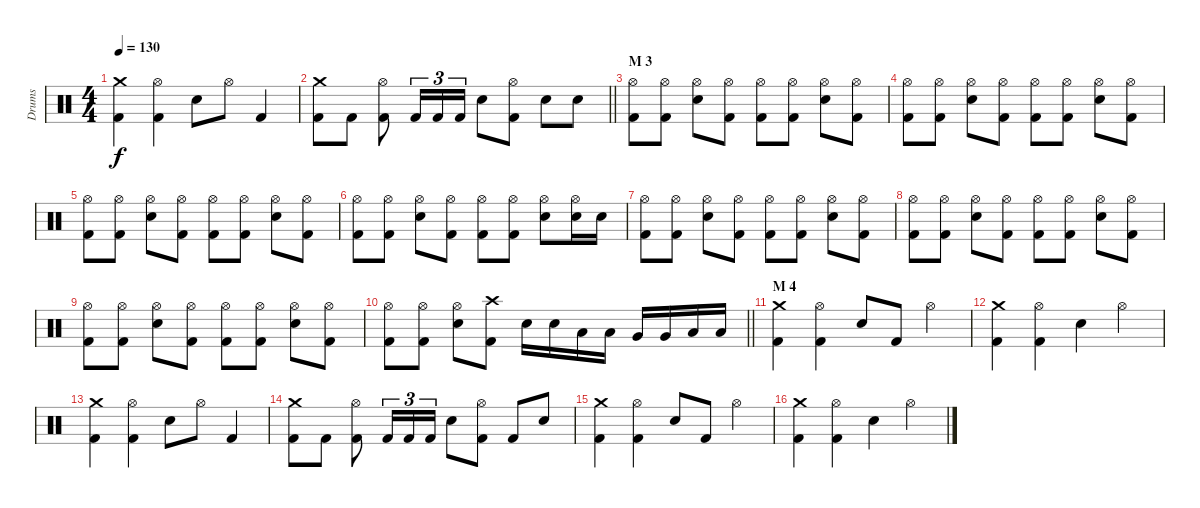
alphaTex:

\track ("Drums" "Drums") {instrument percussion}
\staff
\articulation defaults
\ts (4 4)
\tempo 130
\clef neutral
\ks c
("Crash medium (hit)" "Kick (hit) 2").4{dy f} ("Hi-Hat (open)" "Kick (hit) 2").4 "Electric Snare (hit)".8 "Hi-Hat (open)".8 "Kick (hit) 2".4 |
\barLineRight lightlight
("Crash medium (hit)" "Kick (hit) 2").8 "Kick (hit) 2".8 ("Hi-Hat (open)" "Kick (hit) 2").8 "Kick (hit) 2".16{tu (3 2)} "Kick (hit) 2".16{tu (3 2)} "Kick (hit) 2".16{tu (3 2)} "Electric Snare (hit)".8 ("Hi-Hat (open)" "Kick (hit) 2").8 "Electric Snare (hit)".8 "Electric Snare (hit)".8 |
\section ("" "M 3")
("Hi-Hat (open)" "Kick (hit) 2").8 ("Hi-Hat (open)" "Kick (hit) 2").8 ("Hi-Hat (open)" "Electric Snare (hit)").8 ("Hi-Hat (open)" "Kick (hit) 2").8 ("Hi-Hat (open)" "Kick (hit) 2").8 ("Hi-Hat (open)" "Kick (hit) 2").8 ("Hi-Hat (open)" "Electric Snare (hit)").8 ("Hi-Hat (open)" "Kick (hit) 2").8 |
("Hi-Hat (open)" "Kick (hit) 2").8 ("Hi-Hat (open)" "Kick (hit) 2").8 ("Hi-Hat (open)" "Electric Snare (hit)").8 ("Hi-Hat (open)" "Kick (hit) 2").8 ("Hi-Hat (open)" "Kick (hit) 2").8 ("Hi-Hat (open)" "Kick (hit) 2").8 ("Hi-Hat (open)" "Electric Snare (hit)").8 ("Hi-Hat (open)" "Kick (hit) 2").8 |
("Hi-Hat (open)" "Kick (hit) 2").8 ("Hi-Hat (open)" "Kick (hit) 2").8 ("Hi-Hat (open)" "Electric Snare (hit)").8 ("Hi-Hat (open)" "Kick (hit) 2").8 ("Hi-Hat (open)" "Kick (hit) 2").8 ("Hi-Hat (open)" "Kick (hit) 2").8 ("Hi-Hat (open)" "Electric Snare (hit)").8 ("Hi-Hat (open)" "Kick (hit) 2").8 |
("Hi-Hat (open)" "Kick (hit) 2").8 ("Hi-Hat (open)" "Kick (hit) 2").8 ("Hi-Hat (open)" "Electric Snare (hit)").8 ("Hi-Hat (open)" "Kick (hit) 2").8 ("Hi-Hat (open)" "Kick (hit) 2").8 ("Hi-Hat (open)" "Kick (hit) 2").8 ("Hi-Hat (open)" "Electric Snare (hit)").8 ("Hi-Hat (open)" "Electric Snare (hit)").16 "Electric Snare (hit)".16 |
("Hi-Hat (open)" "Kick (hit) 2").8 ("Hi-Hat (open)" "Kick (hit) 2").8 ("Hi-Hat (open)" "Electric Snare (hit)").8 ("Hi-Hat (open)" "Kick (hit) 2").8 ("Hi-Hat (open)" "Kick (hit) 2").8 ("Hi-Hat (open)" "Kick (hit) 2").8 ("Hi-Hat (open)" "Electric Snare (hit)").8 ("Hi-Hat (open)" "Kick (hit) 2").8 |
("Hi-Hat (open)" "Kick (hit) 2").8 ("Hi-Hat (open)" "Kick (hit) 2").8 ("Hi-Hat (open)" "Electric Snare (hit)").8 ("Hi-Hat (open)" "Kick (hit) 2").8 ("Hi-Hat (open)" "Kick (hit) 2").8 ("Hi-Hat (open)" "Kick (hit) 2").8 ("Hi-Hat (open)" "Electric Snare (hit)").8 ("Hi-Hat (open)" "Kick (hit) 2").8 |
("Hi-Hat (open)" "Kick (hit) 2").8 ("Hi-Hat (open)" "Kick (hit) 2").8 ("Hi-Hat (open)" "Electric Snare (hit)").8 ("Hi-Hat (open)" "Kick (hit) 2").8 ("Hi-Hat (open)" "Kick (hit) 2").8 ("Hi-Hat (open)" "Kick (hit) 2").8 ("Hi-Hat (open)" "Electric Snare (hit)").8 ("Hi-Hat (open)" "Kick (hit) 2").8 |
\barLineRight lightlight
("Hi-Hat (open)" "Kick (hit) 2").8 ("Hi-Hat (open)" "Kick (hit) 2").8 ("Hi-Hat (open)" "Electric Snare (hit)").8 ("Crash high (hit)" "Kick (hit) 2").8 "Electric Snare (hit)".16 "Electric Snare (hit)".16 "Low Tom (hit)".16 "Low Tom (hit)".16 "Very Low Tom (hit)".16 "Very Low Tom (hit)".16 "Low Floor Tom (hit)".16 "Low Floor Tom (hit)".16 |
\section ("" "M 4")
("Crash medium (hit)" "Kick (hit) 2").4 ("Hi-Hat (open)" "Kick (hit) 2").4 "Electric Snare (hit)".8 "Kick (hit) 2".8 "Hi-Hat (open)".4 |
("Crash medium (hit)" "Kick (hit) 2").4 ("Hi-Hat (open)" "Kick (hit) 2").4 "Electric Snare (hit)".4 "Hi-Hat (open)".4 |
("Crash medium (hit)" "Kick (hit) 2").4 ("Hi-Hat (open)" "Kick (hit) 2").4 "Electric Snare (hit)".8 "Hi-Hat (open)".8 "Kick (hit) 2".4 |
("Crash medium (hit)" "Kick (hit) 2").8 "Kick (hit) 2".8 ("Hi-Hat (open)" "Kick (hit) 2").8 "Kick (hit) 2".16{tu (3 2)} "Kick (hit) 2".16{tu (3 2)} "Kick (hit) 2".16{tu (3 2)} "Electric Snare (hit)".8 ("Hi-Hat (open)" "Kick (hit) 2").8 "Kick (hit) 2".8 "Electric Snare (hit)".8 |
("Crash medium (hit)" "Kick (hit) 2").4 ("Hi-Hat (open)" "Kick (hit) 2").4 "Electric Snare (hit)".8 "Kick (hit) 2".8 "Hi-Hat (open)".4 |
("Crash medium (hit)" "Kick (hit) 2").4 ("Hi-Hat (open)" "Kick (hit) 2").4 "Electric Snare (hit)".4 "Hi-Hat (open)".4
